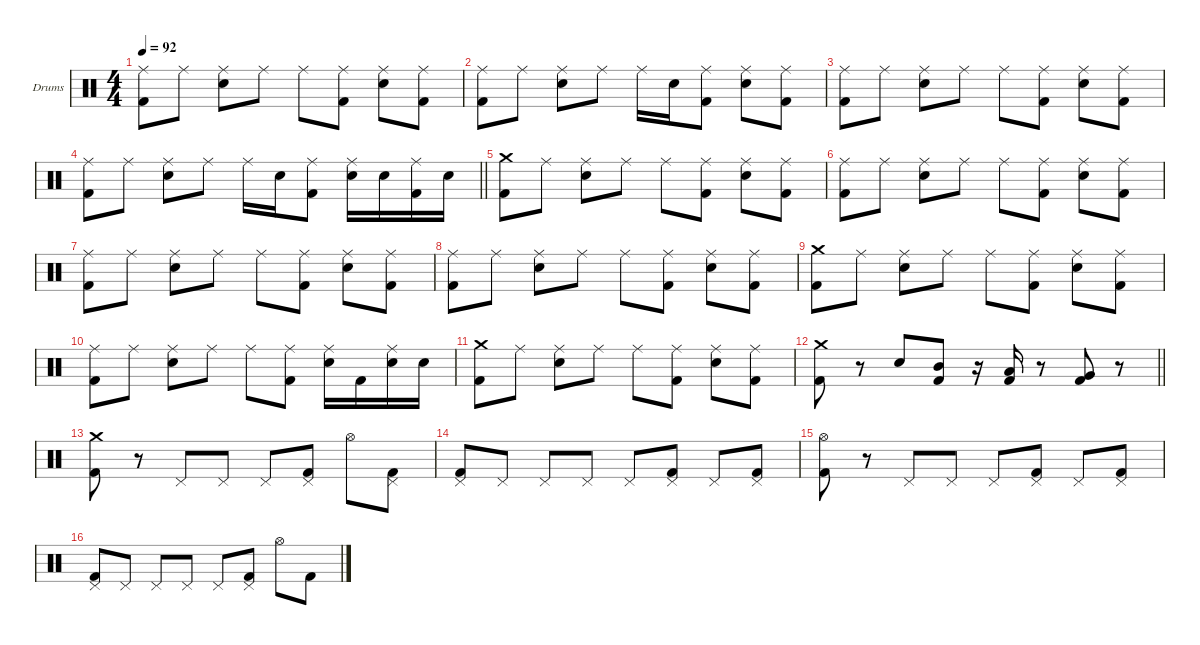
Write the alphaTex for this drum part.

\hideDynamics
\bracketExtendMode nobrackets
\firstSystemTrackNameOrientation horizontal
\otherSystemsTrackNameOrientation horizontal
\track ("Drumkit" "Drums") {instrument percussion}
\staff {score}
\articulation defaults
\ts (4 4)
\tempo 92
\clef neutral
\ks aminor
("Ride (middle)" "Kick (hit) 2").8{dy f} "Ride (middle)".8 ("Ride (middle)" "Snare (hit) 2").8 "Ride (middle)".8 "Ride (middle)".8 ("Ride (middle)" "Kick (hit) 2").8 ("Ride (middle)" "Snare (hit) 2").8 ("Ride (middle)" "Kick (hit) 2").8 |
("Ride (middle)" "Kick (hit) 2").8 "Ride (middle)".8 ("Ride (middle)" "Snare (hit) 2").8 "Ride (middle)".8 "Ride (middle)".16 "Snare (hit) 2".16{dy mp} ("Ride (middle)" "Kick (hit) 2").8{dy f} ("Ride (middle)" "Snare (hit) 2").8 ("Ride (middle)" "Kick (hit) 2").8 |
("Ride (middle)" "Kick (hit) 2").8 "Ride (middle)".8 ("Ride (middle)" "Snare (hit) 2").8 "Ride (middle)".8 "Ride (middle)".8 ("Ride (middle)" "Kick (hit) 2").8 ("Ride (middle)" "Snare (hit) 2").8 ("Ride (middle)" "Kick (hit) 2").8 |
\barLineRight lightlight
("Ride (middle)" "Kick (hit) 2").8 "Ride (middle)".8 ("Ride (middle)" "Snare (hit) 2").8 "Ride (middle)".8 "Ride (middle)".16 "Snare (hit) 2".16{dy mp} ("Ride (middle)" "Kick (hit) 2").8{dy f} ("Ride (middle)" "Snare (hit) 2").16 "Snare (hit) 2".16{dy mp} ("Ride (middle)" "Kick (hit) 2").16{dy f} "Snare (hit) 2".16{dy mp} |
("Crash medium (hit)" "Kick (hit) 2").8{dy f} "Ride (middle)".8 ("Ride (middle)" "Snare (hit) 2").8 "Ride (middle)".8 "Ride (middle)".8 ("Ride (middle)" "Kick (hit) 2").8 ("Ride (middle)" "Snare (hit) 2").8 ("Ride (middle)" "Kick (hit) 2").8 |
("Ride (middle)" "Kick (hit) 2").8 "Ride (middle)".8 ("Ride (middle)" "Snare (hit) 2").8 "Ride (middle)".8 "Ride (middle)".8 ("Ride (middle)" "Kick (hit) 2").8 ("Ride (middle)" "Snare (hit) 2").8 ("Ride (middle)" "Kick (hit) 2").8 |
("Ride (middle)" "Kick (hit) 2").8 "Ride (middle)".8 ("Ride (middle)" "Snare (hit) 2").8 "Ride (middle)".8 "Ride (middle)".8 ("Ride (middle)" "Kick (hit) 2").8 ("Ride (middle)" "Snare (hit) 2").8 ("Ride (middle)" "Kick (hit) 2").8 |
("Ride (middle)" "Kick (hit) 2").8 "Ride (middle)".8 ("Ride (middle)" "Snare (hit) 2").8 "Ride (middle)".8 "Ride (middle)".8 ("Ride (middle)" "Kick (hit) 2").8 ("Ride (middle)" "Snare (hit) 2").8 ("Ride (middle)" "Kick (hit) 2").8 |
("Crash medium (hit)" "Kick (hit) 2").8 "Ride (middle)".8 ("Ride (middle)" "Snare (hit) 2").8 "Ride (middle)".8 "Ride (middle)".8 ("Ride (middle)" "Kick (hit) 2").8 ("Ride (middle)" "Snare (hit) 2").8 ("Ride (middle)" "Kick (hit) 2").8 |
("Ride (middle)" "Kick (hit) 2").8 "Ride (middle)".8 ("Ride (middle)" "Snare (hit) 2").8 "Ride (middle)".8 "Ride (middle)".8 ("Ride (middle)" "Kick (hit) 2").8 ("Ride (middle)" "Snare (hit) 2").16 "Kick (hit) 2".16 ("Ride (middle)" "Snare (hit) 2").16 "Snare (hit) 2".16 |
("Crash medium (hit)" "Kick (hit) 2").8 "Ride (middle)".8 ("Ride (middle)" "Snare (hit) 2").8 "Ride (middle)".8 "Ride (middle)".8 ("Ride (middle)" "Kick (hit) 2").8 ("Ride (middle)" "Snare (hit) 2").8 ("Ride (middle)" "Kick (hit) 2").8 |
\barLineRight lightlight
("Crash medium (hit)" "Kick (hit) 2").8 r.8 "Snare (hit) 2".8 ("Mid Tom (hit)" "Kick (hit) 2").8 r.16 ("Low Tom (hit)" "Kick (hit) 2").16 r.8 ("Very Low Tom (hit)" "Kick (hit) 2").8 r.8 |
("Crash medium (hit)" "Kick (hit) 2").8 r.8 "Pedal Hi-Hat (hit)".8 "Pedal Hi-Hat (hit)".8{dy p} "Pedal Hi-Hat (hit)".8{dy f} ("Pedal Hi-Hat (hit)" "Kick (hit) 2").8{dy p} "Hi-Hat (open)".8{dy mp} ("Pedal Hi-Hat (hit)" "Kick (hit) 2").8{dy p} |
("Pedal Hi-Hat (hit)" "Kick (hit) 2").8{dy f} "Pedal Hi-Hat (hit)".8{dy p} "Pedal Hi-Hat (hit)".8{dy f} "Pedal Hi-Hat (hit)".8{dy p} "Pedal Hi-Hat (hit)".8{dy f} ("Pedal Hi-Hat (hit)" "Kick (hit) 2").8{dy p} "Pedal Hi-Hat (hit)".8{dy f} ("Pedal Hi-Hat (hit)" "Kick (hit) 2").8{dy p} |
("Hi-Hat (open)" "Kick (hit) 2").8{dy mf} r.8 "Pedal Hi-Hat (hit)".8{dy f} "Pedal Hi-Hat (hit)".8{dy p} "Pedal Hi-Hat (hit)".8{dy f} ("Pedal Hi-Hat (hit)" "Kick (hit) 2").8{dy p} "Pedal Hi-Hat (hit)".8{dy f} ("Pedal Hi-Hat (hit)" "Kick (hit) 2").8{dy p} |
("Pedal Hi-Hat (hit)" "Kick (hit) 2").8{dy f} "Pedal Hi-Hat (hit)".8{dy p} "Pedal Hi-Hat (hit)".8{dy f} "Pedal Hi-Hat (hit)".8{dy p} "Pedal Hi-Hat (hit)".8{dy f} ("Pedal Hi-Hat (hit)" "Kick (hit) 2").8{dy p} "Hi-Hat (open)".8{dy mp} "Kick (hit) 2".8{dy f}
